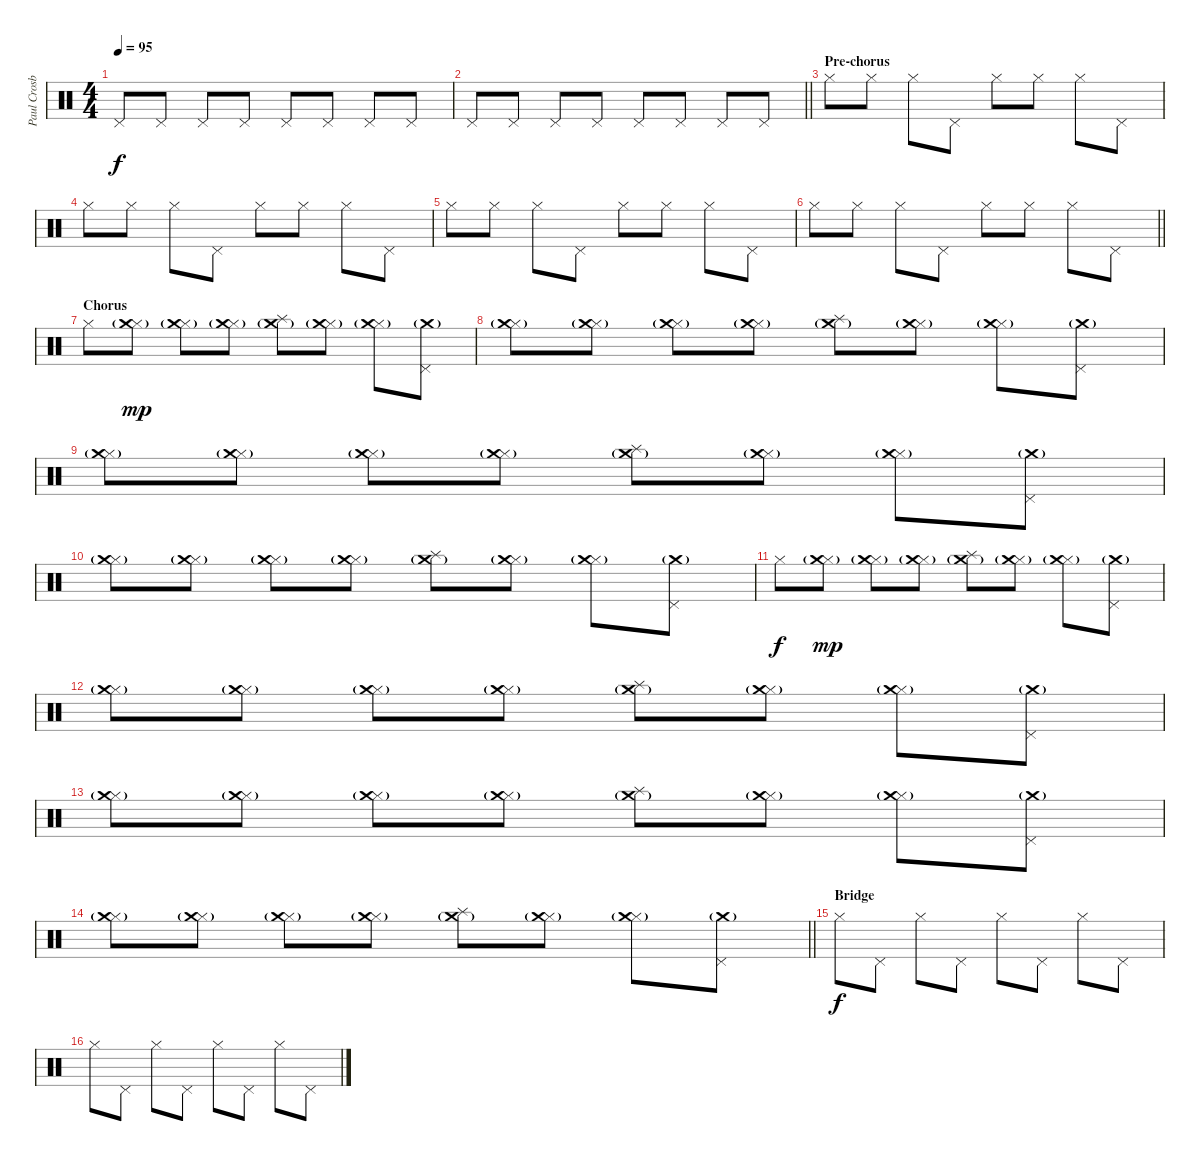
\track ("Paul Crosby (Drums)" "Paul Crosb") {instrument percussion}
\staff {score}
\articulation defaults
\ts (4 4)
\tempo 95
\clef neutral
\ks c "Pedal Hi-Hat (hit)".8{dy f} "Pedal Hi-Hat (hit)".8 "Pedal Hi-Hat (hit)".8 "Pedal Hi-Hat (hit)".8 "Pedal Hi-Hat (hit)".8 "Pedal Hi-Hat (hit)".8 "Pedal Hi-Hat (hit)".8 "Pedal Hi-Hat (hit)".8
|
\barLineRight lightlight "Pedal Hi-Hat (hit)".8 "Pedal Hi-Hat (hit)".8 "Pedal Hi-Hat (hit)".8 "Pedal Hi-Hat (hit)".8 "Pedal Hi-Hat (hit)".8 "Pedal Hi-Hat (hit)".8 "Pedal Hi-Hat (hit)".8 "Pedal Hi-Hat (hit)".8
|
\section ("" "Pre-chorus")
"Hi-Hat (closed)".8 "Hi-Hat (closed)".8 "Hi-Hat (closed)".8 "Pedal Hi-Hat (hit)".8 "Hi-Hat (closed)".8 "Hi-Hat (closed)".8 "Hi-Hat (closed)".8 "Pedal Hi-Hat (hit)".8 |
"Hi-Hat (closed)".8 "Hi-Hat (closed)".8 "Hi-Hat (closed)".8 "Pedal Hi-Hat (hit)".8 "Hi-Hat (closed)".8 "Hi-Hat (closed)".8 "Hi-Hat (closed)".8 "Pedal Hi-Hat (hit)".8 |
"Hi-Hat (closed)".8 "Hi-Hat (closed)".8 "Hi-Hat (closed)".8 "Pedal Hi-Hat (hit)".8 "Hi-Hat (closed)".8 "Hi-Hat (closed)".8 "Hi-Hat (closed)".8 "Pedal Hi-Hat (hit)".8 |
\barLineRight lightlight "Hi-Hat (closed)".8 "Hi-Hat (closed)".8 "Hi-Hat (closed)".8 "Pedal Hi-Hat (hit)".8 "Hi-Hat (closed)".8 "Hi-Hat (closed)".8 "Hi-Hat (closed)".8 "Pedal Hi-Hat (hit)".8
|
\section ("" "Chorus")
"Hi-Hat (closed)".8 ("Hi-Hat (closed)" "Crash medium (hit)"{g}).8{dy mp} ("Hi-Hat (closed)" "Crash medium (hit)"{g}).8 ("Hi-Hat (closed)" "Crash medium (hit)"{g}).8 ("Splash (hit)" "Crash medium (hit)"{g}).8 ("Hi-Hat (closed)" "Crash medium (hit)"{g}).8 ("Hi-Hat (closed)" "Crash medium (hit)"{g}).8 ("Pedal Hi-Hat (hit)" "Crash medium (hit)"{g}).8 |
("Hi-Hat (closed)" "Crash medium (hit)"{g}).8 ("Hi-Hat (closed)" "Crash medium (hit)"{g}).8 ("Hi-Hat (closed)" "Crash medium (hit)"{g}).8 ("Hi-Hat (closed)" "Crash medium (hit)"{g}).8 ("Splash (hit)" "Crash medium (hit)"{g}).8 ("Hi-Hat (closed)" "Crash medium (hit)"{g}).8 ("Hi-Hat (closed)" "Crash medium (hit)"{g}).8 ("Pedal Hi-Hat (hit)" "Crash medium (hit)"{g}).8 |
("Hi-Hat (closed)" "Crash medium (hit)"{g}).8 ("Hi-Hat (closed)" "Crash medium (hit)"{g}).8 ("Hi-Hat (closed)" "Crash medium (hit)"{g}).8 ("Hi-Hat (closed)" "Crash medium (hit)"{g}).8 ("Splash (hit)" "Crash medium (hit)"{g}).8 ("Hi-Hat (closed)" "Crash medium (hit)"{g}).8 ("Hi-Hat (closed)" "Crash medium (hit)"{g}).8 ("Pedal Hi-Hat (hit)" "Crash medium (hit)"{g}).8 |
("Hi-Hat (closed)" "Crash medium (hit)"{g}).8 ("Hi-Hat (closed)" "Crash medium (hit)"{g}).8 ("Hi-Hat (closed)" "Crash medium (hit)"{g}).8 ("Hi-Hat (closed)" "Crash medium (hit)"{g}).8 ("Splash (hit)" "Crash medium (hit)"{g}).8 ("Hi-Hat (closed)" "Crash medium (hit)"{g}).8 ("Hi-Hat (closed)" "Crash medium (hit)"{g}).8 ("Pedal Hi-Hat (hit)" "Crash medium (hit)"{g}).8 |
"Hi-Hat (closed)".8{dy f} ("Hi-Hat (closed)" "Crash medium (hit)"{g}).8{dy mp} ("Hi-Hat (closed)" "Crash medium (hit)"{g}).8 ("Hi-Hat (closed)" "Crash medium (hit)"{g}).8 ("Splash (hit)" "Crash medium (hit)"{g}).8 ("Hi-Hat (closed)" "Crash medium (hit)"{g}).8 ("Hi-Hat (closed)" "Crash medium (hit)"{g}).8 ("Pedal Hi-Hat (hit)" "Crash medium (hit)"{g}).8 |
("Hi-Hat (closed)" "Crash medium (hit)"{g}).8 ("Hi-Hat (closed)" "Crash medium (hit)"{g}).8 ("Hi-Hat (closed)" "Crash medium (hit)"{g}).8 ("Hi-Hat (closed)" "Crash medium (hit)"{g}).8 ("Splash (hit)" "Crash medium (hit)"{g}).8 ("Hi-Hat (closed)" "Crash medium (hit)"{g}).8 ("Hi-Hat (closed)" "Crash medium (hit)"{g}).8 ("Pedal Hi-Hat (hit)" "Crash medium (hit)"{g}).8 |
("Hi-Hat (closed)" "Crash medium (hit)"{g}).8 ("Hi-Hat (closed)" "Crash medium (hit)"{g}).8 ("Hi-Hat (closed)" "Crash medium (hit)"{g}).8 ("Hi-Hat (closed)" "Crash medium (hit)"{g}).8 ("Splash (hit)" "Crash medium (hit)"{g}).8 ("Hi-Hat (closed)" "Crash medium (hit)"{g}).8 ("Hi-Hat (closed)" "Crash medium (hit)"{g}).8 ("Pedal Hi-Hat (hit)" "Crash medium (hit)"{g}).8 |
\barLineRight lightlight
("Hi-Hat (closed)" "Crash medium (hit)"{g}).8 ("Hi-Hat (closed)" "Crash medium (hit)"{g}).8 ("Hi-Hat (closed)" "Crash medium (hit)"{g}).8 ("Hi-Hat (closed)" "Crash medium (hit)"{g}).8 ("Splash (hit)" "Crash medium (hit)"{g}).8 ("Hi-Hat (closed)" "Crash medium (hit)"{g}).8 ("Hi-Hat (closed)" "Crash medium (hit)"{g}).8 ("Pedal Hi-Hat (hit)" "Crash medium (hit)"{g}).8 |
\section ("" "Bridge")
"Hi-Hat (closed)".8{dy f} "Pedal Hi-Hat (hit)".8 "Hi-Hat (closed)".8 "Pedal Hi-Hat (hit)".8 "Hi-Hat (closed)".8 "Pedal Hi-Hat (hit)".8 "Hi-Hat (closed)".8 "Pedal Hi-Hat (hit)".8 |
"Hi-Hat (closed)".8 "Pedal Hi-Hat (hit)".8 "Hi-Hat (closed)".8 "Pedal Hi-Hat (hit)".8 "Hi-Hat (closed)".8 "Pedal Hi-Hat (hit)".8 "Hi-Hat (closed)".8 "Pedal Hi-Hat (hit)".8
